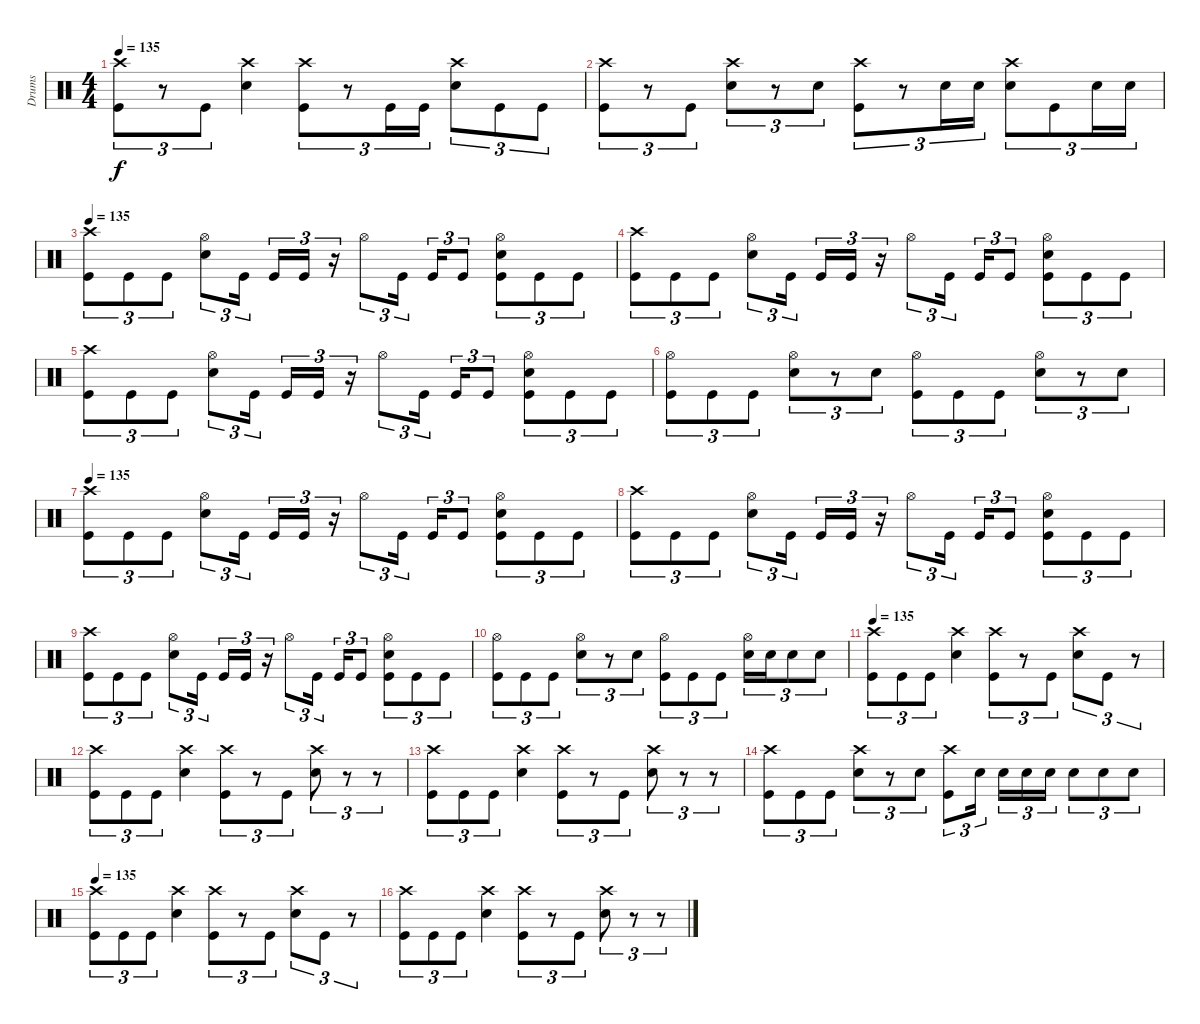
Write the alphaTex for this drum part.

\track ("Drums" "Drums") {instrument percussion}
\staff {score}
\articulation defaults
\ts (4 4)
\tempo 135
\clef neutral
\ks c
("Kick (hit)" "Crash high (hit)").8{tu (3 2) dy f} r.8{tu (3 2)} "Kick (hit)".8{tu (3 2)} ("Snare (hit) 2" "Crash high (hit)").4 ("Kick (hit)" "Crash high (hit)").8{tu (3 2)} r.8{tu (3 2)} "Kick (hit)".16{tu (3 2)} "Kick (hit)".16{tu (3 2)} ("Snare (hit) 2" "Crash high (hit)").8{tu (3 2)} "Kick (hit)".8{tu (3 2)} "Kick (hit)".8{tu (3 2)} |
("Kick (hit)" "Crash high (hit)").8{tu (3 2)} r.8{tu (3 2)} "Kick (hit)".8{tu (3 2)} ("Snare (hit) 2" "Crash high (hit)").8{tu (3 2)} r.8{tu (3 2)} "Snare (hit) 2".8{tu (3 2)} ("Kick (hit)" "Crash high (hit)").8{tu (3 2)} r.8{tu (3 2)} "Snare (hit) 2".16{tu (3 2)} "Snare (hit) 2".16{tu (3 2)} ("Snare (hit) 2" "Crash high (hit)").8{tu (3 2)} "Kick (hit)".8{tu (3 2)} "Snare (hit) 2".16{tu (3 2)} "Snare (hit) 2".16{tu (3 2)} |
\tempo 135
("Kick (hit)" "Crash high (hit)").8{tu (3 2)} "Kick (hit)".8{tu (3 2)} "Kick (hit)".8{tu (3 2)} ("Snare (hit) 2" "Hi-Hat (open)").8{tu (3 2)} "Kick (hit)".16{tu (3 2)} "Kick (hit)".16{tu (3 2)} "Kick (hit)".16{tu (3 2)} r.16{tu (3 2)} "Hi-Hat (open)".8{tu (3 2)} "Kick (hit)".16{tu (3 2)} "Kick (hit)".16{tu (3 2)} "Kick (hit)".8{tu (3 2)} ("Kick (hit)" "Snare (hit) 2" "Hi-Hat (open)").8{tu (3 2)} "Kick (hit)".8{tu (3 2)} "Kick (hit)".8{tu (3 2)} |
("Kick (hit)" "Crash high (hit)").8{tu (3 2)} "Kick (hit)".8{tu (3 2)} "Kick (hit)".8{tu (3 2)} ("Snare (hit) 2" "Hi-Hat (open)").8{tu (3 2)} "Kick (hit)".16{tu (3 2)} "Kick (hit)".16{tu (3 2)} "Kick (hit)".16{tu (3 2)} r.16{tu (3 2)} "Hi-Hat (open)".8{tu (3 2)} "Kick (hit)".16{tu (3 2)} "Kick (hit)".16{tu (3 2)} "Kick (hit)".8{tu (3 2)} ("Kick (hit)" "Snare (hit) 2" "Hi-Hat (open)").8{tu (3 2)} "Kick (hit)".8{tu (3 2)} "Kick (hit)".8{tu (3 2)} |
("Kick (hit)" "Crash high (hit)").8{tu (3 2)} "Kick (hit)".8{tu (3 2)} "Kick (hit)".8{tu (3 2)} ("Snare (hit) 2" "Hi-Hat (open)").8{tu (3 2)} "Kick (hit)".16{tu (3 2)} "Kick (hit)".16{tu (3 2)} "Kick (hit)".16{tu (3 2)} r.16{tu (3 2)} "Hi-Hat (open)".8{tu (3 2)} "Kick (hit)".16{tu (3 2)} "Kick (hit)".16{tu (3 2)} "Kick (hit)".8{tu (3 2)} ("Kick (hit)" "Snare (hit) 2" "Hi-Hat (open)").8{tu (3 2)} "Kick (hit)".8{tu (3 2)} "Kick (hit)".8{tu (3 2)} |
("Kick (hit)" "Hi-Hat (open)").8{tu (3 2)} "Kick (hit)".8{tu (3 2)} "Kick (hit)".8{tu (3 2)} ("Snare (hit) 2" "Hi-Hat (open)").8{tu (3 2)} r.8{tu (3 2)} "Snare (hit) 2".8{tu (3 2)} ("Kick (hit)" "Hi-Hat (open)").8{tu (3 2)} "Kick (hit)".8{tu (3 2)} "Kick (hit)".8{tu (3 2)} ("Snare (hit) 2" "Hi-Hat (open)").8{tu (3 2)} r.8{tu (3 2)} "Snare (hit) 2".8{tu (3 2)} |
\tempo 135
("Kick (hit)" "Crash high (hit)").8{tu (3 2)} "Kick (hit)".8{tu (3 2)} "Kick (hit)".8{tu (3 2)} ("Snare (hit) 2" "Hi-Hat (open)").8{tu (3 2)} "Kick (hit)".16{tu (3 2)} "Kick (hit)".16{tu (3 2)} "Kick (hit)".16{tu (3 2)} r.16{tu (3 2)} "Hi-Hat (open)".8{tu (3 2)} "Kick (hit)".16{tu (3 2)} "Kick (hit)".16{tu (3 2)} "Kick (hit)".8{tu (3 2)} ("Kick (hit)" "Snare (hit) 2" "Hi-Hat (open)").8{tu (3 2)} "Kick (hit)".8{tu (3 2)} "Kick (hit)".8{tu (3 2)} |
("Kick (hit)" "Crash high (hit)").8{tu (3 2)} "Kick (hit)".8{tu (3 2)} "Kick (hit)".8{tu (3 2)} ("Snare (hit) 2" "Hi-Hat (open)").8{tu (3 2)} "Kick (hit)".16{tu (3 2)} "Kick (hit)".16{tu (3 2)} "Kick (hit)".16{tu (3 2)} r.16{tu (3 2)} "Hi-Hat (open)".8{tu (3 2)} "Kick (hit)".16{tu (3 2)} "Kick (hit)".16{tu (3 2)} "Kick (hit)".8{tu (3 2)} ("Kick (hit)" "Snare (hit) 2" "Hi-Hat (open)").8{tu (3 2)} "Kick (hit)".8{tu (3 2)} "Kick (hit)".8{tu (3 2)} |
("Kick (hit)" "Crash high (hit)").8{tu (3 2)} "Kick (hit)".8{tu (3 2)} "Kick (hit)".8{tu (3 2)} ("Snare (hit) 2" "Hi-Hat (open)").8{tu (3 2)} "Kick (hit)".16{tu (3 2)} "Kick (hit)".16{tu (3 2)} "Kick (hit)".16{tu (3 2)} r.16{tu (3 2)} "Hi-Hat (open)".8{tu (3 2)} "Kick (hit)".16{tu (3 2)} "Kick (hit)".16{tu (3 2)} "Kick (hit)".8{tu (3 2)} ("Kick (hit)" "Snare (hit) 2" "Hi-Hat (open)").8{tu (3 2)} "Kick (hit)".8{tu (3 2)} "Kick (hit)".8{tu (3 2)} |
("Kick (hit)" "Hi-Hat (open)").8{tu (3 2)} "Kick (hit)".8{tu (3 2)} "Kick (hit)".8{tu (3 2)} ("Snare (hit) 2" "Hi-Hat (open)").8{tu (3 2)} r.8{tu (3 2)} "Snare (hit) 2".8{tu (3 2)} ("Kick (hit)" "Hi-Hat (open)").8{tu (3 2)} "Kick (hit)".8{tu (3 2)} "Kick (hit)".8{tu (3 2)} ("Snare (hit) 2" "Hi-Hat (open)").16{tu (3 2)} "Snare (hit) 2".16{tu (3 2)} "Snare (hit) 2".8{tu (3 2)} "Snare (hit) 2".8{tu (3 2)} |
\tempo 135
("Kick (hit)" "Crash high (hit)").8{tu (3 2)} "Kick (hit)".8{tu (3 2)} "Kick (hit)".8{tu (3 2)} ("Snare (hit) 2" "Crash high (hit)").4 ("Kick (hit)" "Crash high (hit)").8{tu (3 2)} r.8{tu (3 2)} "Kick (hit)".8{tu (3 2)} ("Snare (hit) 2" "Crash high (hit)").8{tu (3 2)} "Kick (hit)".8{tu (3 2)} r.8{tu (3 2)} |
("Kick (hit)" "Crash high (hit)").8{tu (3 2)} "Kick (hit)".8{tu (3 2)} "Kick (hit)".8{tu (3 2)} ("Snare (hit) 2" "Crash high (hit)").4 ("Kick (hit)" "Crash high (hit)").8{tu (3 2)} r.8{tu (3 2)} "Kick (hit)".8{tu (3 2)} ("Snare (hit) 2" "Crash high (hit)").8{tu (3 2)} r.8{tu (3 2)} r.8{tu (3 2)} |
("Kick (hit)" "Crash high (hit)").8{tu (3 2)} "Kick (hit)".8{tu (3 2)} "Kick (hit)".8{tu (3 2)} ("Snare (hit) 2" "Crash high (hit)").4 ("Kick (hit)" "Crash high (hit)").8{tu (3 2)} r.8{tu (3 2)} "Kick (hit)".8{tu (3 2)} ("Snare (hit) 2" "Crash high (hit)").8{tu (3 2)} r.8{tu (3 2)} r.8{tu (3 2)} |
("Kick (hit)" "Crash high (hit)").8{tu (3 2)} "Kick (hit)".8{tu (3 2)} "Kick (hit)".8{tu (3 2)} ("Snare (hit) 2" "Crash high (hit)").8{tu (3 2)} r.8{tu (3 2)} "Snare (hit) 2".8{tu (3 2)} ("Kick (hit)" "Crash high (hit)").8{tu (3 2)} "Snare (hit) 2".16{tu (3 2)} "Snare (hit) 2".16{tu (3 2)} "Snare (hit) 2".16{tu (3 2)} "Snare (hit) 2".16{tu (3 2)} "Snare (hit) 2".8{tu (3 2)} "Snare (hit) 2".8{tu (3 2)} "Snare (hit) 2".8{tu (3 2)} |
\tempo 135
("Kick (hit)" "Crash high (hit)").8{tu (3 2)} "Kick (hit)".8{tu (3 2)} "Kick (hit)".8{tu (3 2)} ("Snare (hit) 2" "Crash high (hit)").4 ("Kick (hit)" "Crash high (hit)").8{tu (3 2)} r.8{tu (3 2)} "Kick (hit)".8{tu (3 2)} ("Snare (hit) 2" "Crash high (hit)").8{tu (3 2)} "Kick (hit)".8{tu (3 2)} r.8{tu (3 2)} |
("Kick (hit)" "Crash high (hit)").8{tu (3 2)} "Kick (hit)".8{tu (3 2)} "Kick (hit)".8{tu (3 2)} ("Snare (hit) 2" "Crash high (hit)").4 ("Kick (hit)" "Crash high (hit)").8{tu (3 2)} r.8{tu (3 2)} "Kick (hit)".8{tu (3 2)} ("Snare (hit) 2" "Crash high (hit)").8{tu (3 2)} r.8{tu (3 2)} r.8{tu (3 2)}
